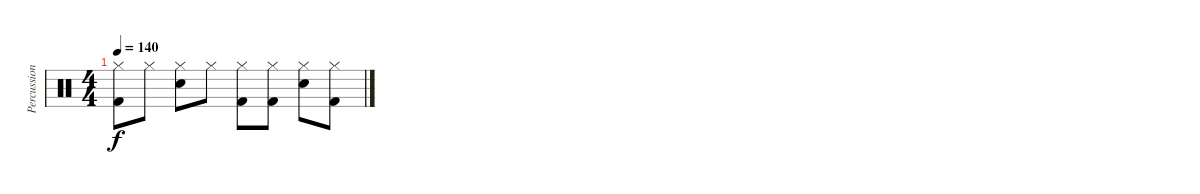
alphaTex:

\track ("Percussion" "Percussion") {instrument percussion}
\staff {score}
\articulation defaults
\ts (4 4)
\tempo 140
\clef neutral
\ks c
("Hi-Hat (closed)" "Kick (hit) 2").8{dy f} "Hi-Hat (closed)".8 ("Hi-Hat (closed)" "Snare (hit) 2").8 "Hi-Hat (closed)".8 ("Hi-Hat (closed)" "Kick (hit) 2").8 ("Hi-Hat (closed)" "Kick (hit) 2").8 ("Hi-Hat (closed)" "Snare (hit) 2").8 ("Hi-Hat (closed)" "Kick (hit) 2").8
